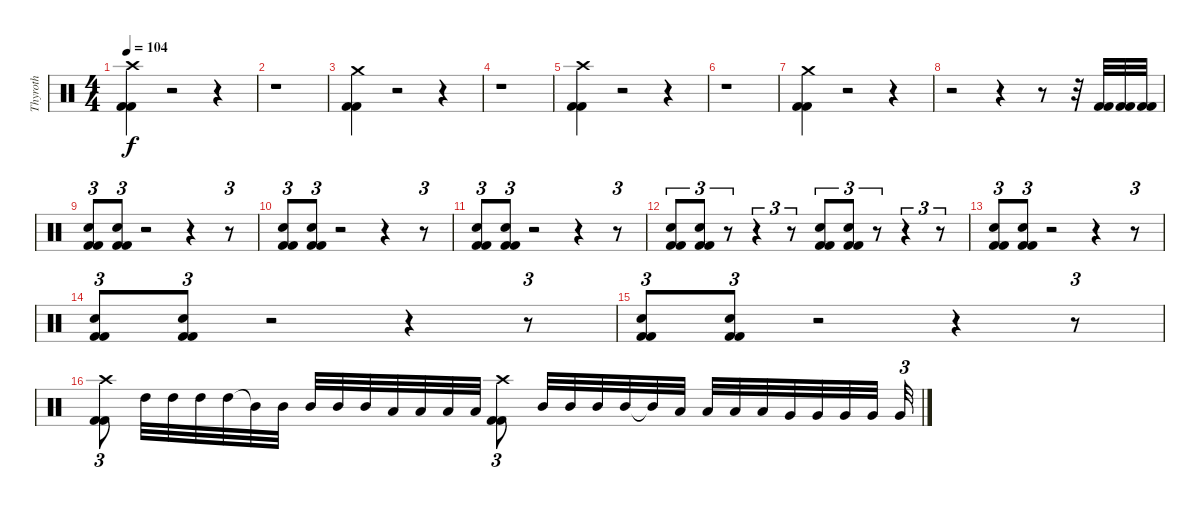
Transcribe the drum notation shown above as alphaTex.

\track ("Thyroth" "Thyroth") {instrument percussion}
\staff {score}
\articulation defaults
\ts (4 4)
\tempo 104
\clef neutral
\ks c
("Kick (hit) 2" "Kick (hit) 2" "Crash high (hit)").4{dy f} r.2 r.4 |
r.1 |
("Kick (hit) 2" "Kick (hit) 2" "Crash medium (hit)").4 r.2 r.4 |
r.1 |
("Kick (hit) 2" "Kick (hit) 2" "Crash high (hit)").4 r.2 r.4 |
r.1 |
("Kick (hit) 2" "Kick (hit) 2" "Crash medium (hit)").4 r.2 r.4 |
r.2 r.4 r.8 r.32 ("Kick (hit) 2" "Kick (hit) 2").32 ("Kick (hit) 2" "Kick (hit) 2").32 ("Kick (hit) 2" "Kick (hit) 2").32 |
("Kick (hit) 2" "Kick (hit) 2" "Snare (hit) 2").8{tu (3 2)} ("Kick (hit) 2" "Kick (hit) 2" "Snare (hit) 2").8{tu (3 2)} r.2 r.4 r.8{tu (3 2)} |
("Kick (hit) 2" "Kick (hit) 2" "Snare (hit) 2").8{tu (3 2)} ("Kick (hit) 2" "Kick (hit) 2" "Snare (hit) 2").8{tu (3 2)} r.2 r.4 r.8{tu (3 2)} |
("Kick (hit) 2" "Kick (hit) 2" "Snare (hit) 2").8{tu (3 2)} ("Kick (hit) 2" "Kick (hit) 2" "Snare (hit) 2").8{tu (3 2)} r.2 r.4 r.8{tu (3 2)} |
("Kick (hit) 2" "Kick (hit) 2" "Snare (hit) 2").8{tu (3 2)} ("Kick (hit) 2" "Kick (hit) 2" "Snare (hit) 2").8{tu (3 2)} r.8{tu (3 2)} r.4{tu (3 2)} r.8{tu (3 2)} ("Kick (hit) 2" "Kick (hit) 2" "Snare (hit) 2").8{tu (3 2)} ("Kick (hit) 2" "Kick (hit) 2" "Snare (hit) 2").8{tu (3 2)} r.8{tu (3 2)} r.4{tu (3 2)} r.8{tu (3 2)} |
("Kick (hit) 2" "Kick (hit) 2" "Snare (hit) 2").8{tu (3 2)} ("Kick (hit) 2" "Kick (hit) 2" "Snare (hit) 2").8{tu (3 2)} r.2 r.4 r.8{tu (3 2)} |
("Kick (hit) 2" "Kick (hit) 2" "Snare (hit) 2").8{tu (3 2)} ("Kick (hit) 2" "Kick (hit) 2" "Snare (hit) 2").8{tu (3 2)} r.2 r.4 r.8{tu (3 2)} |
("Kick (hit) 2" "Kick (hit) 2" "Snare (hit) 2").8{tu (3 2)} ("Kick (hit) 2" "Kick (hit) 2" "Snare (hit) 2").8{tu (3 2)} r.2 r.4 r.8{tu (3 2)} |
("Kick (hit) 2" "Kick (hit) 2" "Crash high (hit)").8{tu (3 2)} "High Tom (hit)".32 "High Tom (hit)".32 "High Tom (hit)".32 "High Tom (hit)".32 "Mid Tom (hit)"{t}.32 "Mid Tom (hit)".32 "Mid Tom (hit)".32 "Mid Tom (hit)".32 "Mid Tom (hit)".32 "Low Tom (hit)".32 "Low Tom (hit)".32 "Low Tom (hit)".32 "Low Tom (hit)".32 ("Kick (hit) 2" "Kick (hit) 2" "Crash high (hit)").8{tu (3 2)} "Mid Tom (hit)".32 "Mid Tom (hit)".32 "Mid Tom (hit)".32 "Mid Tom (hit)".32 "Mid Tom (hit)"{t}.32 "Low Tom (hit)".32 "Low Tom (hit)".32 "Low Tom (hit)".32 "Low Tom (hit)".32 "Very Low Tom (hit)".32 "Very Low Tom (hit)".32 "Very Low Tom (hit)".32 "Very Low Tom (hit)".32 "Very Low Tom (hit)".32{tu (3 2)}
